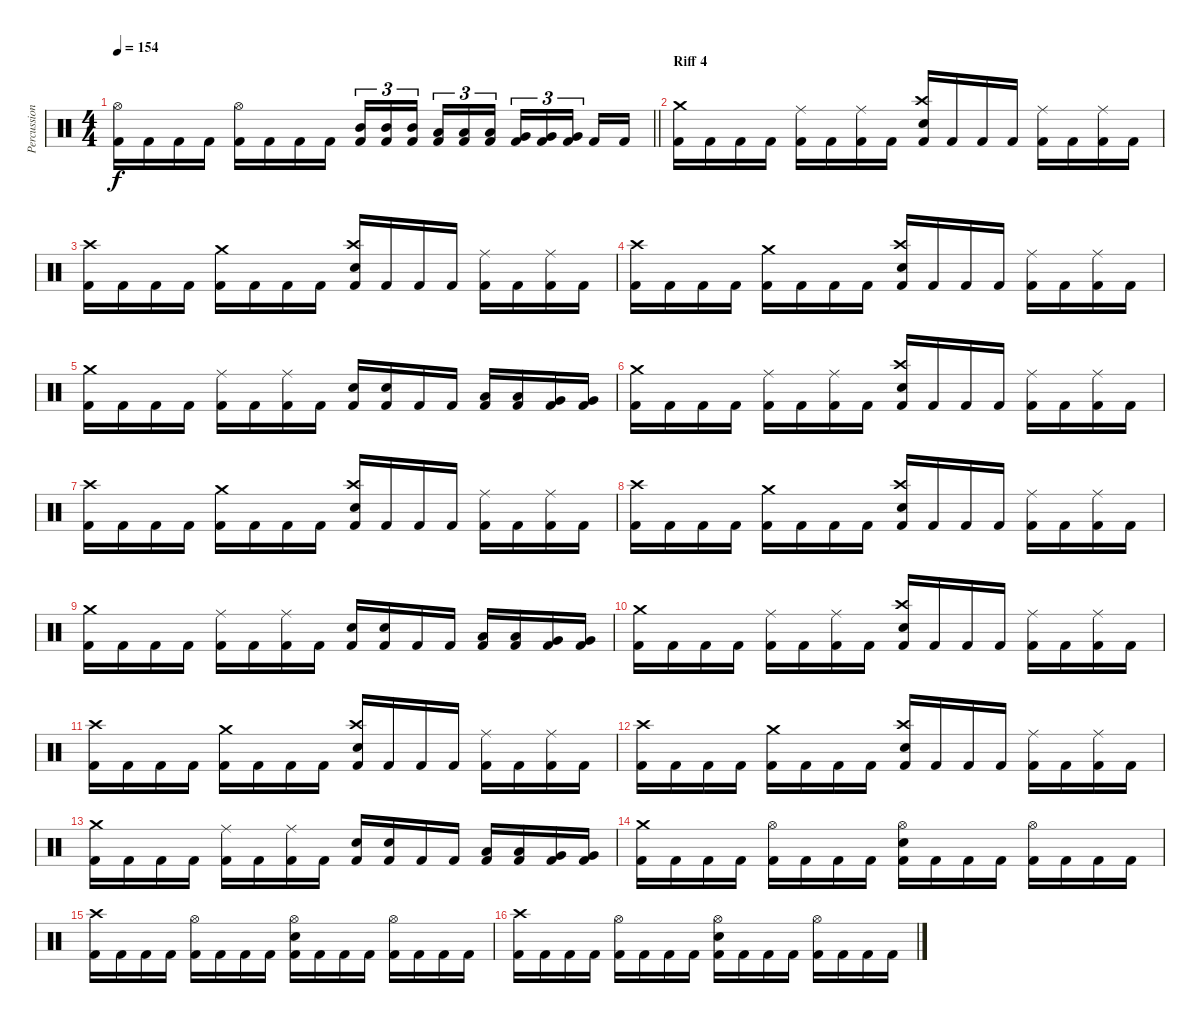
\track ("Percussion" "Percussion") {instrument percussion}
\staff {score}
\articulation defaults
\ts (4 4)
\tempo 154
\clef neutral
\barLineRight lightlight
\ks c
("Hi-Hat (open)" "Kick (hit) 2").16{dy f} "Kick (hit) 2".16 "Kick (hit) 2".16 "Kick (hit) 2".16 ("Hi-Hat (open)" "Kick (hit) 2").16 "Kick (hit) 2".16 "Kick (hit) 2".16 "Kick (hit) 2".16 ("Mid Tom (hit)" "Kick (hit) 2").16{tu (3 2)} ("Mid Tom (hit)" "Kick (hit) 2").16{tu (3 2)} ("Mid Tom (hit)" "Kick (hit) 2").16{tu (3 2) beam splitsecondary} ("Low Tom (hit)" "Kick (hit) 2").16{tu (3 2)} ("Low Tom (hit)" "Kick (hit) 2").16{tu (3 2)} ("Low Tom (hit)" "Kick (hit) 2").16{tu (3 2)} ("Very Low Tom (hit)" "Kick (hit) 2").16{tu (3 2)} ("Very Low Tom (hit)" "Kick (hit) 2").16{tu (3 2)} ("Very Low Tom (hit)" "Kick (hit) 2").16{tu (3 2) beam splitsecondary} "Kick (hit) 2".16 "Kick (hit) 2".16 |
\section ("" "Riff 4")
("Crash medium (hit)" "Kick (hit) 2").16 "Kick (hit) 2".16 "Kick (hit) 2".16 "Kick (hit) 2".16 ("Ride (middle)" "Kick (hit) 2").16 "Kick (hit) 2".16 ("Ride (middle)" "Kick (hit) 2").16 "Kick (hit) 2".16 ("Crash high (hit)" "Electric Snare (hit)" "Kick (hit) 2").16 "Kick (hit) 2".16 "Kick (hit) 2".16 "Kick (hit) 2".16 ("Ride (middle)" "Kick (hit) 2").16 "Kick (hit) 2".16 ("Ride (middle)" "Kick (hit) 2").16 "Kick (hit) 2".16 |
("Crash high (hit)" "Kick (hit) 2").16 "Kick (hit) 2".16 "Kick (hit) 2".16 "Kick (hit) 2".16 ("Crash medium (hit)" "Kick (hit) 2").16 "Kick (hit) 2".16 "Kick (hit) 2".16 "Kick (hit) 2".16 ("Crash high (hit)" "Electric Snare (hit)" "Kick (hit) 2").16 "Kick (hit) 2".16 "Kick (hit) 2".16 "Kick (hit) 2".16 ("Ride (middle)" "Kick (hit) 2").16 "Kick (hit) 2".16 ("Ride (middle)" "Kick (hit) 2").16 "Kick (hit) 2".16 |
("Crash high (hit)" "Kick (hit) 2").16 "Kick (hit) 2".16 "Kick (hit) 2".16 "Kick (hit) 2".16 ("Crash medium (hit)" "Kick (hit) 2").16 "Kick (hit) 2".16 "Kick (hit) 2".16 "Kick (hit) 2".16 ("Crash high (hit)" "Electric Snare (hit)" "Kick (hit) 2").16 "Kick (hit) 2".16 "Kick (hit) 2".16 "Kick (hit) 2".16 ("Ride (middle)" "Kick (hit) 2").16 "Kick (hit) 2".16 ("Ride (middle)" "Kick (hit) 2").16 "Kick (hit) 2".16 |
("Crash medium (hit)" "Kick (hit) 2").16 "Kick (hit) 2".16 "Kick (hit) 2".16 "Kick (hit) 2".16 ("Ride (middle)" "Kick (hit) 2").16 "Kick (hit) 2".16 ("Ride (middle)" "Kick (hit) 2").16 "Kick (hit) 2".16 ("Electric Snare (hit)" "Kick (hit) 2").16 ("Electric Snare (hit)" "Kick (hit) 2").16 "Kick (hit) 2".16 "Kick (hit) 2".16 ("Low Tom (hit)" "Kick (hit) 2").16 ("Low Tom (hit)" "Kick (hit) 2").16 ("Very Low Tom (hit)" "Kick (hit) 2").16 ("Very Low Tom (hit)" "Kick (hit) 2").16 |
("Crash medium (hit)" "Kick (hit) 2").16 "Kick (hit) 2".16 "Kick (hit) 2".16 "Kick (hit) 2".16 ("Ride (middle)" "Kick (hit) 2").16 "Kick (hit) 2".16 ("Ride (middle)" "Kick (hit) 2").16 "Kick (hit) 2".16 ("Crash high (hit)" "Electric Snare (hit)" "Kick (hit) 2").16 "Kick (hit) 2".16 "Kick (hit) 2".16 "Kick (hit) 2".16 ("Ride (middle)" "Kick (hit) 2").16 "Kick (hit) 2".16 ("Ride (middle)" "Kick (hit) 2").16 "Kick (hit) 2".16 |
("Crash high (hit)" "Kick (hit) 2").16 "Kick (hit) 2".16 "Kick (hit) 2".16 "Kick (hit) 2".16 ("Crash medium (hit)" "Kick (hit) 2").16 "Kick (hit) 2".16 "Kick (hit) 2".16 "Kick (hit) 2".16 ("Crash high (hit)" "Electric Snare (hit)" "Kick (hit) 2").16 "Kick (hit) 2".16 "Kick (hit) 2".16 "Kick (hit) 2".16 ("Ride (middle)" "Kick (hit) 2").16 "Kick (hit) 2".16 ("Ride (middle)" "Kick (hit) 2").16 "Kick (hit) 2".16 |
("Crash high (hit)" "Kick (hit) 2").16 "Kick (hit) 2".16 "Kick (hit) 2".16 "Kick (hit) 2".16 ("Crash medium (hit)" "Kick (hit) 2").16 "Kick (hit) 2".16 "Kick (hit) 2".16 "Kick (hit) 2".16 ("Crash high (hit)" "Electric Snare (hit)" "Kick (hit) 2").16 "Kick (hit) 2".16 "Kick (hit) 2".16 "Kick (hit) 2".16 ("Ride (middle)" "Kick (hit) 2").16 "Kick (hit) 2".16 ("Ride (middle)" "Kick (hit) 2").16 "Kick (hit) 2".16 |
("Crash medium (hit)" "Kick (hit) 2").16 "Kick (hit) 2".16 "Kick (hit) 2".16 "Kick (hit) 2".16 ("Ride (middle)" "Kick (hit) 2").16 "Kick (hit) 2".16 ("Ride (middle)" "Kick (hit) 2").16 "Kick (hit) 2".16 ("Electric Snare (hit)" "Kick (hit) 2").16 ("Electric Snare (hit)" "Kick (hit) 2").16 "Kick (hit) 2".16 "Kick (hit) 2".16 ("Low Tom (hit)" "Kick (hit) 2").16 ("Low Tom (hit)" "Kick (hit) 2").16 ("Very Low Tom (hit)" "Kick (hit) 2").16 ("Very Low Tom (hit)" "Kick (hit) 2").16 |
("Crash medium (hit)" "Kick (hit) 2").16 "Kick (hit) 2".16 "Kick (hit) 2".16 "Kick (hit) 2".16 ("Ride (middle)" "Kick (hit) 2").16 "Kick (hit) 2".16 ("Ride (middle)" "Kick (hit) 2").16 "Kick (hit) 2".16 ("Crash high (hit)" "Electric Snare (hit)" "Kick (hit) 2").16 "Kick (hit) 2".16 "Kick (hit) 2".16 "Kick (hit) 2".16 ("Ride (middle)" "Kick (hit) 2").16 "Kick (hit) 2".16 ("Ride (middle)" "Kick (hit) 2").16 "Kick (hit) 2".16 |
("Crash high (hit)" "Kick (hit) 2").16 "Kick (hit) 2".16 "Kick (hit) 2".16 "Kick (hit) 2".16 ("Crash medium (hit)" "Kick (hit) 2").16 "Kick (hit) 2".16 "Kick (hit) 2".16 "Kick (hit) 2".16 ("Crash high (hit)" "Electric Snare (hit)" "Kick (hit) 2").16 "Kick (hit) 2".16 "Kick (hit) 2".16 "Kick (hit) 2".16 ("Ride (middle)" "Kick (hit) 2").16 "Kick (hit) 2".16 ("Ride (middle)" "Kick (hit) 2").16 "Kick (hit) 2".16 |
("Crash high (hit)" "Kick (hit) 2").16 "Kick (hit) 2".16 "Kick (hit) 2".16 "Kick (hit) 2".16 ("Crash medium (hit)" "Kick (hit) 2").16 "Kick (hit) 2".16 "Kick (hit) 2".16 "Kick (hit) 2".16 ("Crash high (hit)" "Electric Snare (hit)" "Kick (hit) 2").16 "Kick (hit) 2".16 "Kick (hit) 2".16 "Kick (hit) 2".16 ("Ride (middle)" "Kick (hit) 2").16 "Kick (hit) 2".16 ("Ride (middle)" "Kick (hit) 2").16 "Kick (hit) 2".16 |
("Crash medium (hit)" "Kick (hit) 2").16 "Kick (hit) 2".16 "Kick (hit) 2".16 "Kick (hit) 2".16 ("Ride (middle)" "Kick (hit) 2").16 "Kick (hit) 2".16 ("Ride (middle)" "Kick (hit) 2").16 "Kick (hit) 2".16 ("Electric Snare (hit)" "Kick (hit) 2").16 ("Electric Snare (hit)" "Kick (hit) 2").16 "Kick (hit) 2".16 "Kick (hit) 2".16 ("Low Tom (hit)" "Kick (hit) 2").16 ("Low Tom (hit)" "Kick (hit) 2").16 ("Very Low Tom (hit)" "Kick (hit) 2").16 ("Very Low Tom (hit)" "Kick (hit) 2").16 |
("Crash medium (hit)" "Kick (hit) 2").16 "Kick (hit) 2".16 "Kick (hit) 2".16 "Kick (hit) 2".16 ("Hi-Hat (open)" "Kick (hit) 2").16 "Kick (hit) 2".16 "Kick (hit) 2".16 "Kick (hit) 2".16 ("Hi-Hat (open)" "Electric Snare (hit)" "Kick (hit) 2").16 "Kick (hit) 2".16 "Kick (hit) 2".16 "Kick (hit) 2".16 ("Hi-Hat (open)" "Kick (hit) 2").16 "Kick (hit) 2".16 "Kick (hit) 2".16 "Kick (hit) 2".16 |
("Crash high (hit)" "Kick (hit) 2").16 "Kick (hit) 2".16 "Kick (hit) 2".16 "Kick (hit) 2".16 ("Hi-Hat (open)" "Kick (hit) 2").16 "Kick (hit) 2".16 "Kick (hit) 2".16 "Kick (hit) 2".16 ("Hi-Hat (open)" "Electric Snare (hit)" "Kick (hit) 2").16 "Kick (hit) 2".16 "Kick (hit) 2".16 "Kick (hit) 2".16 ("Hi-Hat (open)" "Kick (hit) 2").16 "Kick (hit) 2".16 "Kick (hit) 2".16 "Kick (hit) 2".16 |
("Crash high (hit)" "Kick (hit) 2").16 "Kick (hit) 2".16 "Kick (hit) 2".16 "Kick (hit) 2".16 ("Hi-Hat (open)" "Kick (hit) 2").16 "Kick (hit) 2".16 "Kick (hit) 2".16 "Kick (hit) 2".16 ("Hi-Hat (open)" "Electric Snare (hit)" "Kick (hit) 2").16 "Kick (hit) 2".16 "Kick (hit) 2".16 "Kick (hit) 2".16 ("Hi-Hat (open)" "Kick (hit) 2").16 "Kick (hit) 2".16 "Kick (hit) 2".16 "Kick (hit) 2".16
